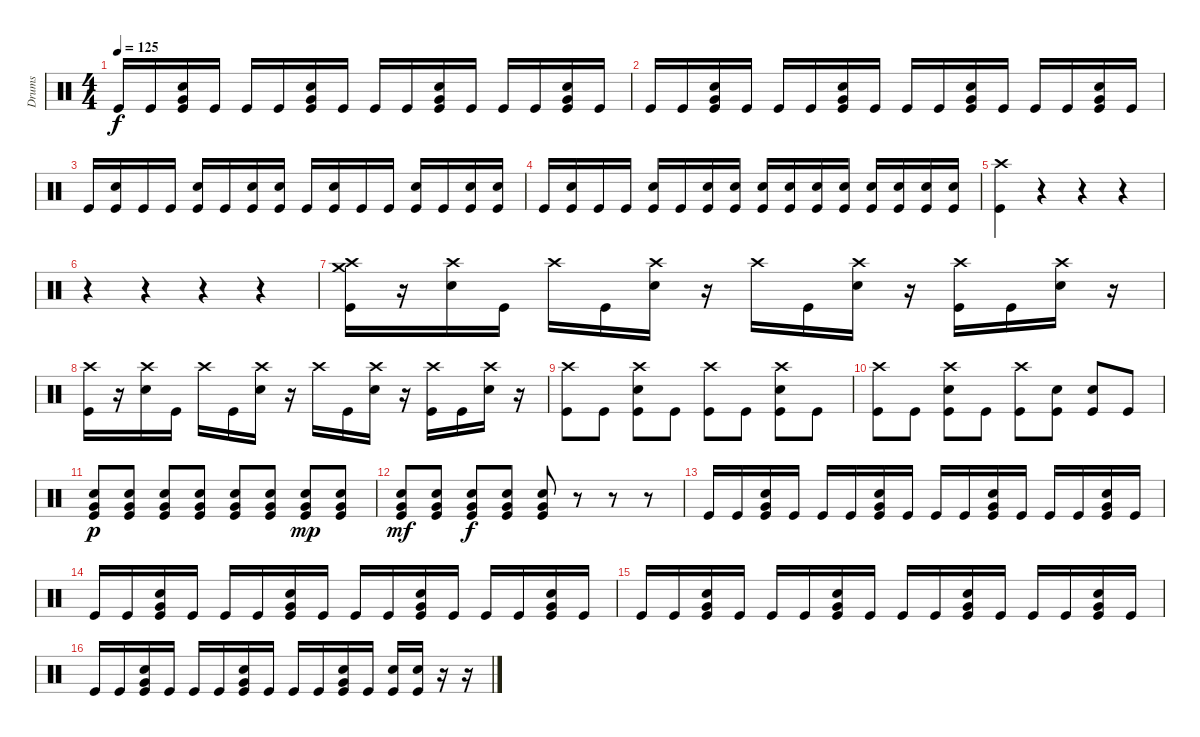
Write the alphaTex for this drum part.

\track ("Drums" "Drums") {instrument percussion}
\staff {score}
\articulation defaults
\ts (4 4)
\tempo 125
\clef neutral
\ks c "Kick (hit)".16{dy f} "Kick (hit)".16
("Very Low Tom (hit)" "Electric Snare (hit)" "Kick (hit)").16 "Kick (hit)".16 "Kick (hit)".16 "Kick (hit)".16 ("Very Low Tom (hit)" "Electric Snare (hit)" "Kick (hit)").16 "Kick (hit)".16 "Kick (hit)".16 "Kick (hit)".16 ("Very Low Tom (hit)" "Electric Snare (hit)" "Kick (hit)").16 "Kick (hit)".16 "Kick (hit)".16 "Kick (hit)".16 ("Very Low Tom (hit)" "Electric Snare (hit)" "Kick (hit)").16 "Kick (hit)".16 |
"Kick (hit)".16 "Kick (hit)".16 ("Very Low Tom (hit)" "Electric Snare (hit)" "Kick (hit)").16 "Kick (hit)".16 "Kick (hit)".16 "Kick (hit)".16 ("Very Low Tom (hit)" "Electric Snare (hit)" "Kick (hit)").16 "Kick (hit)".16 "Kick (hit)".16 "Kick (hit)".16 ("Very Low Tom (hit)" "Electric Snare (hit)" "Kick (hit)").16 "Kick (hit)".16 "Kick (hit)".16 "Kick (hit)".16 ("Very Low Tom (hit)" "Electric Snare (hit)" "Kick (hit)").16 "Kick (hit)".16 |
"Kick (hit)".16 ("Electric Snare (hit)" "Kick (hit)").16 "Kick (hit)".16 "Kick (hit)".16 ("Electric Snare (hit)" "Kick (hit)").16 "Kick (hit)".16 ("Electric Snare (hit)" "Kick (hit)").16 ("Electric Snare (hit)" "Kick (hit)").16 "Kick (hit)".16 ("Electric Snare (hit)" "Kick (hit)").16 "Kick (hit)".16 "Kick (hit)".16 ("Electric Snare (hit)" "Kick (hit)").16 "Kick (hit)".16 ("Electric Snare (hit)" "Kick (hit)").16 ("Electric Snare (hit)" "Kick (hit)").16 |
"Kick (hit)".16 ("Electric Snare (hit)" "Kick (hit)").16 "Kick (hit)".16 "Kick (hit)".16 ("Electric Snare (hit)" "Kick (hit)").16 "Kick (hit)".16 ("Electric Snare (hit)" "Kick (hit)").16 ("Electric Snare (hit)" "Kick (hit)").16 ("Electric Snare (hit)" "Kick (hit)").16 ("Electric Snare (hit)" "Kick (hit)").16 ("Electric Snare (hit)" "Kick (hit)").16 ("Electric Snare (hit)" "Kick (hit)").16 ("Electric Snare (hit)" "Kick (hit)").16 ("Electric Snare (hit)" "Kick (hit)").16 ("Electric Snare (hit)" "Kick (hit)").16 ("Electric Snare (hit)" "Kick (hit)").16 |
("Crash high (hit)" "Kick (hit)").4 r.4 r.4 r.4 |
r.4 r.4 r.4 r.4 |
("Crash high (hit)" "Crash medium (hit)" "Kick (hit)").16 r.16 ("Crash high (hit)" "Electric Snare (hit)").16 "Kick (hit)".16 "Crash high (hit)".16 "Kick (hit)".16 ("Crash high (hit)" "Electric Snare (hit)").16 r.16 "Crash high (hit)".16 "Kick (hit)".16 ("Crash high (hit)" "Electric Snare (hit)").16 r.16 ("Crash high (hit)" "Kick (hit)").16 "Kick (hit)".16 ("Crash high (hit)" "Electric Snare (hit)").16 r.16 |
("Crash high (hit)" "Kick (hit)").16 r.16 ("Crash high (hit)" "Electric Snare (hit)").16 "Kick (hit)".16 "Crash high (hit)".16 "Kick (hit)".16 ("Crash high (hit)" "Electric Snare (hit)").16 r.16 "Crash high (hit)".16 "Kick (hit)".16 ("Crash high (hit)" "Electric Snare (hit)").16 r.16 ("Crash high (hit)" "Kick (hit)").16 "Kick (hit)".16 ("Crash high (hit)" "Electric Snare (hit)").16 r.16 |
("Crash high (hit)" "Kick (hit)").8 "Kick (hit)".8 ("Crash high (hit)" "Electric Snare (hit)" "Kick (hit)").8 "Kick (hit)".8 ("Crash high (hit)" "Kick (hit)").8 "Kick (hit)".8 ("Crash high (hit)" "Electric Snare (hit)" "Kick (hit)").8 "Kick (hit)".8 |
("Crash high (hit)" "Kick (hit)").8 "Kick (hit)".8 ("Crash high (hit)" "Electric Snare (hit)" "Kick (hit)").8 "Kick (hit)".8 ("Crash high (hit)" "Kick (hit)").8 ("Electric Snare (hit)" "Kick (hit)").8 ("Electric Snare (hit)" "Kick (hit)").8 "Kick (hit)".8 |
("Very Low Tom (hit)" "Electric Snare (hit)" "Kick (hit)").8{dy p} ("Very Low Tom (hit)" "Electric Snare (hit)" "Kick (hit)").8 ("Very Low Tom (hit)" "Electric Snare (hit)" "Kick (hit)").8 ("Very Low Tom (hit)" "Electric Snare (hit)" "Kick (hit)").8 ("Very Low Tom (hit)" "Electric Snare (hit)" "Kick (hit)").8 ("Very Low Tom (hit)" "Electric Snare (hit)" "Kick (hit)").8 ("Very Low Tom (hit)" "Electric Snare (hit)" "Kick (hit)").8{dy mp} ("Very Low Tom (hit)" "Electric Snare (hit)" "Kick (hit)").8 |
("Very Low Tom (hit)" "Electric Snare (hit)" "Kick (hit)").8{dy mf} ("Very Low Tom (hit)" "Electric Snare (hit)" "Kick (hit)").8 ("Very Low Tom (hit)" "Electric Snare (hit)" "Kick (hit)").8{dy f} ("Very Low Tom (hit)" "Electric Snare (hit)" "Kick (hit)").8 ("Very Low Tom (hit)" "Electric Snare (hit)" "Kick (hit)").8 r.8 r.8 r.8 |
"Kick (hit)".16{volume 13 balance 8} "Kick (hit)".16 ("Very Low Tom (hit)" "Electric Snare (hit)" "Kick (hit)").16 "Kick (hit)".16 "Kick (hit)".16 "Kick (hit)".16 ("Very Low Tom (hit)" "Electric Snare (hit)" "Kick (hit)").16 "Kick (hit)".16 "Kick (hit)".16 "Kick (hit)".16 ("Very Low Tom (hit)" "Electric Snare (hit)" "Kick (hit)").16 "Kick (hit)".16 "Kick (hit)".16 "Kick (hit)".16 ("Very Low Tom (hit)" "Electric Snare (hit)" "Kick (hit)").16 "Kick (hit)".16 |
"Kick (hit)".16 "Kick (hit)".16 ("Very Low Tom (hit)" "Electric Snare (hit)" "Kick (hit)").16 "Kick (hit)".16 "Kick (hit)".16 "Kick (hit)".16 ("Very Low Tom (hit)" "Electric Snare (hit)" "Kick (hit)").16 "Kick (hit)".16 "Kick (hit)".16 "Kick (hit)".16 ("Very Low Tom (hit)" "Electric Snare (hit)" "Kick (hit)").16 "Kick (hit)".16 "Kick (hit)".16 "Kick (hit)".16 ("Very Low Tom (hit)" "Electric Snare (hit)" "Kick (hit)").16 "Kick (hit)".16 |
"Kick (hit)".16 "Kick (hit)".16 ("Very Low Tom (hit)" "Electric Snare (hit)" "Kick (hit)").16 "Kick (hit)".16 "Kick (hit)".16 "Kick (hit)".16 ("Very Low Tom (hit)" "Electric Snare (hit)" "Kick (hit)").16 "Kick (hit)".16 "Kick (hit)".16 "Kick (hit)".16 ("Very Low Tom (hit)" "Electric Snare (hit)" "Kick (hit)").16 "Kick (hit)".16 "Kick (hit)".16 "Kick (hit)".16 ("Very Low Tom (hit)" "Electric Snare (hit)" "Kick (hit)").16 "Kick (hit)".16 |
"Kick (hit)".16 "Kick (hit)".16 ("Very Low Tom (hit)" "Electric Snare (hit)" "Kick (hit)").16 "Kick (hit)".16 "Kick (hit)".16 "Kick (hit)".16 ("Very Low Tom (hit)" "Electric Snare (hit)" "Kick (hit)").16 "Kick (hit)".16 "Kick (hit)".16 "Kick (hit)".16 ("Very Low Tom (hit)" "Electric Snare (hit)" "Kick (hit)").16 "Kick (hit)".16 ("Electric Snare (hit)" "Kick (hit)").16 ("Electric Snare (hit)" "Kick (hit)").16 r.16 r.16
